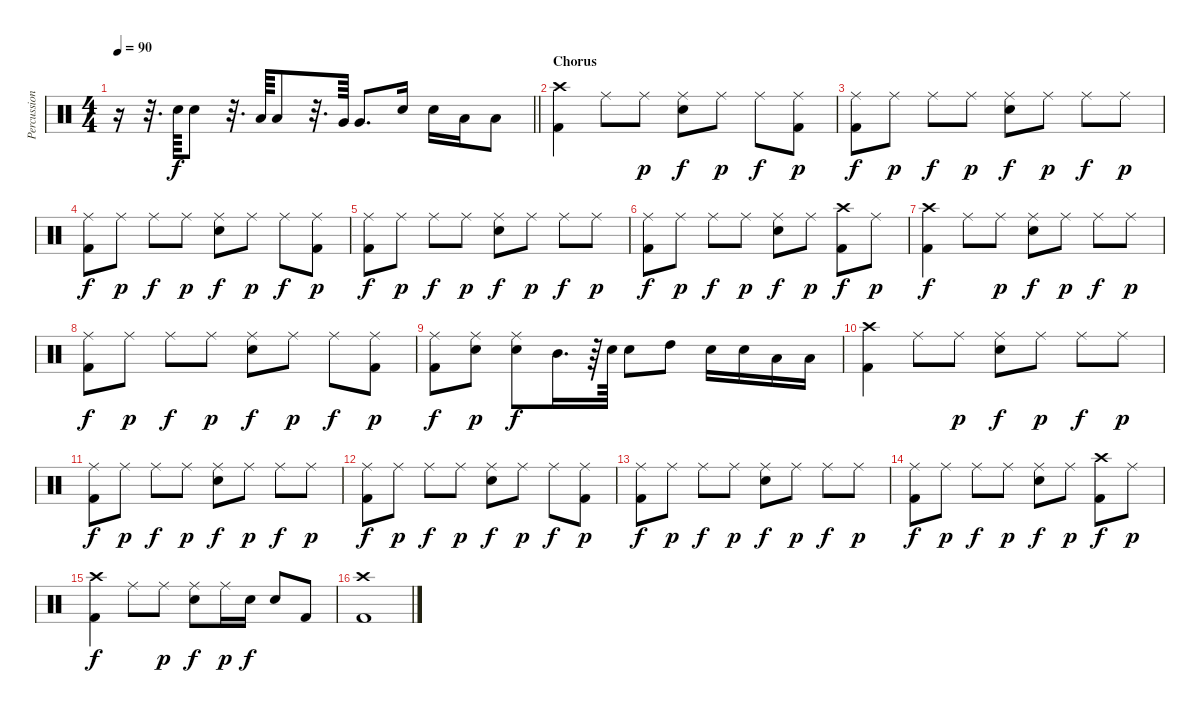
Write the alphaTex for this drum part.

\track ("Percussion" "Percussion") {instrument percussion}
\staff {score}
\articulation defaults
\ts (4 4)
\tempo 90
\clef neutral
\barLineRight lightlight
\ks c
r.16{dy f} r.32{d} "Electric Snare (hit)".64 "Electric Snare (hit)".8 r.32{d} "Low Tom (hit)".64 "Low Tom (hit)".8 r.32{d} "Very Low Tom (hit)".64 "Very Low Tom (hit)".8{d} "Electric Snare (hit)".16 "Electric Snare (hit)".16 "Low Tom (hit)".16 "Low Tom (hit)".8 |
\section ("" "Chorus")
("Crash high (hit)" "Kick (hit) 2").4 "Ride (middle)".8 "Ride (middle)".8{dy p} ("Ride (middle)" "Electric Snare (hit)").8{dy f} "Ride (middle)".8{dy p} "Ride (middle)".8{dy f} ("Ride (middle)" "Kick (hit) 2").8{dy p} |
("Ride (middle)" "Kick (hit) 2").8{dy f} "Ride (middle)".8{dy p} "Ride (middle)".8{dy f} "Ride (middle)".8{dy p} ("Ride (middle)" "Electric Snare (hit)").8{dy f} "Ride (middle)".8{dy p} "Ride (middle)".8{dy f} "Ride (middle)".8{dy p} |
("Ride (middle)" "Kick (hit) 2").8{dy f} "Ride (middle)".8{dy p} "Ride (middle)".8{dy f} "Ride (middle)".8{dy p} ("Ride (middle)" "Electric Snare (hit)").8{dy f} "Ride (middle)".8{dy p} "Ride (middle)".8{dy f} ("Ride (middle)" "Kick (hit) 2").8{dy p} |
("Ride (middle)" "Kick (hit) 2").8{dy f} "Ride (middle)".8{dy p} "Ride (middle)".8{dy f} "Ride (middle)".8{dy p} ("Ride (middle)" "Electric Snare (hit)").8{dy f} "Ride (middle)".8{dy p} "Ride (middle)".8{dy f} "Ride (middle)".8{dy p} |
("Ride (middle)" "Kick (hit) 2").8{dy f} "Ride (middle)".8{dy p} "Ride (middle)".8{dy f} "Ride (middle)".8{dy p} ("Ride (middle)" "Electric Snare (hit)").8{dy f} "Ride (middle)".8{dy p} ("Crash high (hit)" "Kick (hit) 2").8{dy f} "Ride (middle)".8{dy p} |
("Crash high (hit)" "Kick (hit) 2").4{dy f} "Ride (middle)".8 "Ride (middle)".8{dy p} ("Ride (middle)" "Electric Snare (hit)").8{dy f} "Ride (middle)".8{dy p} "Ride (middle)".8{dy f} "Ride (middle)".8{dy p} |
("Ride (middle)" "Kick (hit) 2").8{dy f} "Ride (middle)".8{dy p} "Ride (middle)".8{dy f} "Ride (middle)".8{dy p} ("Ride (middle)" "Electric Snare (hit)").8{dy f} "Ride (middle)".8{dy p} "Ride (middle)".8{dy f} ("Ride (middle)" "Kick (hit) 2").8{dy p} |
("Ride (middle)" "Kick (hit) 2").8{dy f} ("Ride (middle)" "Electric Snare (hit)").8{dy p} ("Ride (middle)" "Electric Snare (hit)").8{dy f} "Mid Tom (hit)".16{d} r.64 "Electric Snare (hit)".64 "Electric Snare (hit)".8 "High Tom (hit)".8 "Electric Snare (hit)".16 "Electric Snare (hit)".16 "Low Tom (hit)".16 "Low Tom (hit)".16 |
("Crash high (hit)" "Kick (hit) 2").4 "Ride (middle)".8 "Ride (middle)".8{dy p} ("Ride (middle)" "Electric Snare (hit)").8{dy f} "Ride (middle)".8{dy p} "Ride (middle)".8{dy f} "Ride (middle)".8{dy p} |
("Ride (middle)" "Kick (hit) 2").8{dy f} "Ride (middle)".8{dy p} "Ride (middle)".8{dy f} "Ride (middle)".8{dy p} ("Ride (middle)" "Electric Snare (hit)").8{dy f} "Ride (middle)".8{dy p} "Ride (middle)".8{dy f} "Ride (middle)".8{dy p} |
("Ride (middle)" "Kick (hit) 2").8{dy f} "Ride (middle)".8{dy p} "Ride (middle)".8{dy f} "Ride (middle)".8{dy p} ("Ride (middle)" "Electric Snare (hit)").8{dy f} "Ride (middle)".8{dy p} "Ride (middle)".8{dy f} ("Ride (middle)" "Kick (hit) 2").8{dy p} |
("Ride (middle)" "Kick (hit) 2").8{dy f} "Ride (middle)".8{dy p} "Ride (middle)".8{dy f} "Ride (middle)".8{dy p} ("Ride (middle)" "Electric Snare (hit)").8{dy f} "Ride (middle)".8{dy p} "Ride (middle)".8{dy f} "Ride (middle)".8{dy p} |
("Ride (middle)" "Kick (hit) 2").8{dy f} "Ride (middle)".8{dy p} "Ride (middle)".8{dy f} "Ride (middle)".8{dy p} ("Ride (middle)" "Electric Snare (hit)").8{dy f} "Ride (middle)".8{dy p} ("Crash high (hit)" "Kick (hit) 2").8{dy f} "Ride (middle)".8{dy p} |
("Crash high (hit)" "Kick (hit) 2").4{dy f} "Ride (middle)".8 "Ride (middle)".8{dy p} ("Ride (middle)" "Electric Snare (hit)").8{dy f} "Ride (middle)".16{dy p} "Electric Snare (hit)".16{dy f} "Electric Snare (hit)".8 "Kick (hit) 2".8 |
("Crash high (hit)" "Kick (hit) 2").1
